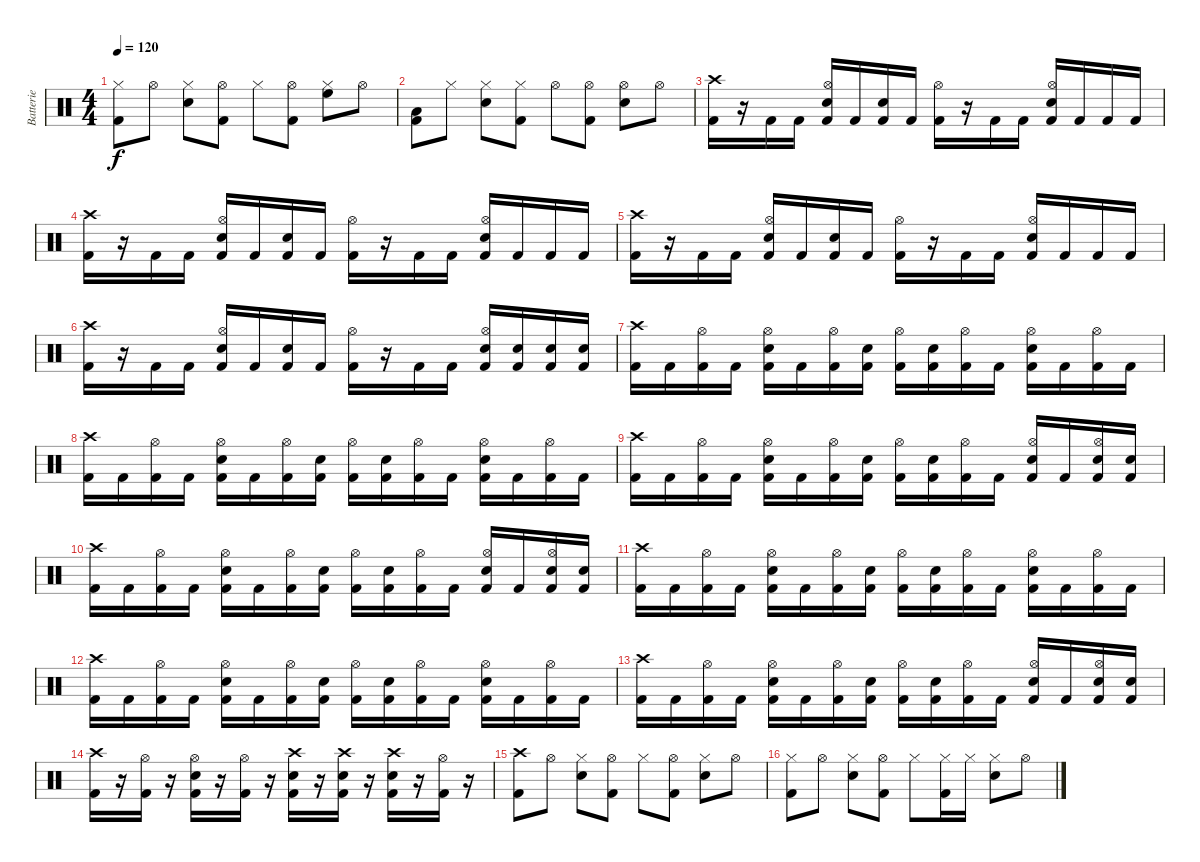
\track ("Batterie" "Batterie") {instrument percussion}
\staff {score}
\articulation defaults
\ts (4 4)
\tempo 120
\clef neutral
\ks c
("Hi-Hat (closed)" "Kick (hit) 2").8{dy f} "Hi-Hat (open)".8 ("Hi-Hat (closed)" "Snare (hit) 2").8 ("Hi-Hat (open)" "Kick (hit) 2").8 "Hi-Hat (closed)".8 ("Hi-Hat (open)" "Kick (hit) 2").8 ("Hi-Hat (closed)" "High Floor Tom (hit)").8 "Hi-Hat (open)".8 |
("Low Tom (hit)" "Kick (hit) 2").8 "Hi-Hat (closed)".8 ("Hi-Hat (closed)" "Snare (hit) 2").8 ("Hi-Hat (closed)" "Kick (hit) 2").8 "Hi-Hat (open)".8 ("Hi-Hat (open)" "Kick (hit) 2").8 ("Hi-Hat (open)" "Snare (hit) 2").8 "Hi-Hat (open)".8 |
("Crash high (hit)" "Kick (hit) 2").16 r.16 "Kick (hit) 2".16 "Kick (hit) 2".16 ("Hi-Hat (open)" "Snare (hit) 2" "Kick (hit) 2").16 "Kick (hit) 2".16 ("Snare (hit) 2" "Kick (hit) 2").16 "Kick (hit) 2".16 ("Hi-Hat (open)" "Kick (hit) 2").16 r.16 "Kick (hit) 2".16 "Kick (hit) 2".16 ("Hi-Hat (open)" "Snare (hit) 2" "Kick (hit) 2").16 "Kick (hit) 2".16 "Kick (hit) 2".16 "Kick (hit) 2".16 |
("Crash high (hit)" "Kick (hit) 2").16 r.16 "Kick (hit) 2".16 "Kick (hit) 2".16 ("Hi-Hat (open)" "Snare (hit) 2" "Kick (hit) 2").16 "Kick (hit) 2".16 ("Snare (hit) 2" "Kick (hit) 2").16 "Kick (hit) 2".16 ("Hi-Hat (open)" "Kick (hit) 2").16 r.16 "Kick (hit) 2".16 "Kick (hit) 2".16 ("Hi-Hat (open)" "Snare (hit) 2" "Kick (hit) 2").16 "Kick (hit) 2".16 "Kick (hit) 2".16 "Kick (hit) 2".16 |
("Crash high (hit)" "Kick (hit) 2").16 r.16 "Kick (hit) 2".16 "Kick (hit) 2".16 ("Hi-Hat (open)" "Snare (hit) 2" "Kick (hit) 2").16 "Kick (hit) 2".16 ("Snare (hit) 2" "Kick (hit) 2").16 "Kick (hit) 2".16 ("Hi-Hat (open)" "Kick (hit) 2").16 r.16 "Kick (hit) 2".16 "Kick (hit) 2".16 ("Hi-Hat (open)" "Snare (hit) 2" "Kick (hit) 2").16 "Kick (hit) 2".16 "Kick (hit) 2".16 "Kick (hit) 2".16 |
("Crash high (hit)" "Kick (hit) 2").16 r.16 "Kick (hit) 2".16 "Kick (hit) 2".16 ("Hi-Hat (open)" "Snare (hit) 2" "Kick (hit) 2").16 "Kick (hit) 2".16 ("Snare (hit) 2" "Kick (hit) 2").16 "Kick (hit) 2".16 ("Hi-Hat (open)" "Kick (hit) 2").16 r.16 "Kick (hit) 2".16 "Kick (hit) 2".16 ("Hi-Hat (open)" "Snare (hit) 2" "Kick (hit) 2").16 ("Snare (hit) 2" "Kick (hit) 2").16 ("Snare (hit) 2" "Kick (hit) 2").16 ("Snare (hit) 2" "Kick (hit) 2").16 |
("Crash high (hit)" "Kick (hit) 2").16 "Kick (hit) 2".16 ("Hi-Hat (open)" "Kick (hit) 2").16 "Kick (hit) 2".16 ("Hi-Hat (open)" "Snare (hit) 2" "Kick (hit) 2").16 "Kick (hit) 2".16 ("Hi-Hat (open)" "Kick (hit) 2").16 ("Snare (hit) 2" "Kick (hit) 2").16 ("Hi-Hat (open)" "Kick (hit) 2").16 ("Snare (hit) 2" "Kick (hit) 2").16 ("Hi-Hat (open)" "Kick (hit) 2").16 "Kick (hit) 2".16 ("Hi-Hat (open)" "Snare (hit) 2" "Kick (hit) 2").16 "Kick (hit) 2".16 ("Hi-Hat (open)" "Kick (hit) 2").16 "Kick (hit) 2".16 |
("Crash high (hit)" "Kick (hit) 2").16 "Kick (hit) 2".16 ("Hi-Hat (open)" "Kick (hit) 2").16 "Kick (hit) 2".16 ("Hi-Hat (open)" "Snare (hit) 2" "Kick (hit) 2").16 "Kick (hit) 2".16 ("Hi-Hat (open)" "Kick (hit) 2").16 ("Snare (hit) 2" "Kick (hit) 2").16 ("Hi-Hat (open)" "Kick (hit) 2").16 ("Snare (hit) 2" "Kick (hit) 2").16 ("Hi-Hat (open)" "Kick (hit) 2").16 "Kick (hit) 2".16 ("Hi-Hat (open)" "Snare (hit) 2" "Kick (hit) 2").16 "Kick (hit) 2".16 ("Hi-Hat (open)" "Kick (hit) 2").16 "Kick (hit) 2".16 |
("Crash high (hit)" "Kick (hit) 2").16 "Kick (hit) 2".16 ("Hi-Hat (open)" "Kick (hit) 2").16 "Kick (hit) 2".16 ("Hi-Hat (open)" "Snare (hit) 2" "Kick (hit) 2").16 "Kick (hit) 2".16 ("Hi-Hat (open)" "Kick (hit) 2").16 ("Snare (hit) 2" "Kick (hit) 2").16 ("Hi-Hat (open)" "Kick (hit) 2").16 ("Snare (hit) 2" "Kick (hit) 2").16 ("Hi-Hat (open)" "Kick (hit) 2").16 "Kick (hit) 2".16 ("Hi-Hat (open)" "Snare (hit) 2" "Kick (hit) 2").16 "Kick (hit) 2".16 ("Hi-Hat (open)" "Snare (hit) 2" "Kick (hit) 2").16 ("Snare (hit) 2" "Kick (hit) 2").16 |
("Crash high (hit)" "Kick (hit) 2").16 "Kick (hit) 2".16 ("Hi-Hat (open)" "Kick (hit) 2").16 "Kick (hit) 2".16 ("Hi-Hat (open)" "Snare (hit) 2" "Kick (hit) 2").16 "Kick (hit) 2".16 ("Hi-Hat (open)" "Kick (hit) 2").16 ("Snare (hit) 2" "Kick (hit) 2").16 ("Hi-Hat (open)" "Kick (hit) 2").16 ("Snare (hit) 2" "Kick (hit) 2").16 ("Hi-Hat (open)" "Kick (hit) 2").16 "Kick (hit) 2".16 ("Hi-Hat (open)" "Snare (hit) 2" "Kick (hit) 2").16 "Kick (hit) 2".16 ("Hi-Hat (open)" "Snare (hit) 2" "Kick (hit) 2").16 ("Snare (hit) 2" "Kick (hit) 2").16 |
("Crash high (hit)" "Kick (hit) 2").16 "Kick (hit) 2".16 ("Hi-Hat (open)" "Kick (hit) 2").16 "Kick (hit) 2".16 ("Hi-Hat (open)" "Snare (hit) 2" "Kick (hit) 2").16 "Kick (hit) 2".16 ("Hi-Hat (open)" "Kick (hit) 2").16 ("Snare (hit) 2" "Kick (hit) 2").16 ("Hi-Hat (open)" "Kick (hit) 2").16 ("Snare (hit) 2" "Kick (hit) 2").16 ("Hi-Hat (open)" "Kick (hit) 2").16 "Kick (hit) 2".16 ("Hi-Hat (open)" "Snare (hit) 2" "Kick (hit) 2").16 "Kick (hit) 2".16 ("Hi-Hat (open)" "Kick (hit) 2").16 "Kick (hit) 2".16 |
("Crash high (hit)" "Kick (hit) 2").16 "Kick (hit) 2".16 ("Hi-Hat (open)" "Kick (hit) 2").16 "Kick (hit) 2".16 ("Hi-Hat (open)" "Snare (hit) 2" "Kick (hit) 2").16 "Kick (hit) 2".16 ("Hi-Hat (open)" "Kick (hit) 2").16 ("Snare (hit) 2" "Kick (hit) 2").16 ("Hi-Hat (open)" "Kick (hit) 2").16 ("Snare (hit) 2" "Kick (hit) 2").16 ("Hi-Hat (open)" "Kick (hit) 2").16 "Kick (hit) 2".16 ("Hi-Hat (open)" "Snare (hit) 2" "Kick (hit) 2").16 "Kick (hit) 2".16 ("Hi-Hat (open)" "Kick (hit) 2").16 "Kick (hit) 2".16 |
("Crash high (hit)" "Kick (hit) 2").16 "Kick (hit) 2".16 ("Hi-Hat (open)" "Kick (hit) 2").16 "Kick (hit) 2".16 ("Hi-Hat (open)" "Snare (hit) 2" "Kick (hit) 2").16 "Kick (hit) 2".16 ("Hi-Hat (open)" "Kick (hit) 2").16 ("Snare (hit) 2" "Kick (hit) 2").16 ("Hi-Hat (open)" "Kick (hit) 2").16 ("Snare (hit) 2" "Kick (hit) 2").16 ("Hi-Hat (open)" "Kick (hit) 2").16 "Kick (hit) 2".16 ("Hi-Hat (open)" "Snare (hit) 2" "Kick (hit) 2").16 "Kick (hit) 2".16 ("Hi-Hat (open)" "Snare (hit) 2" "Kick (hit) 2").16 ("Snare (hit) 2" "Kick (hit) 2").16 |
("Crash high (hit)" "Kick (hit) 2").16 r.16 ("Hi-Hat (open)" "Kick (hit) 2").16 r.16 ("Hi-Hat (open)" "Snare (hit) 2" "Kick (hit) 2").16 r.16 ("Hi-Hat (open)" "Kick (hit) 2").16 r.16 ("Crash high (hit)" "Snare (hit) 2" "Kick (hit) 2").16 r.16 ("Crash high (hit)" "Snare (hit) 2" "Kick (hit) 2").16 r.16 ("Crash high (hit)" "Snare (hit) 2" "Kick (hit) 2").16 r.16 ("Hi-Hat (open)" "Kick (hit) 2").16 r.16 |
("Crash high (hit)" "Kick (hit) 2").8 "Hi-Hat (open)".8 ("Hi-Hat (closed)" "Snare (hit) 2").8 ("Hi-Hat (open)" "Kick (hit) 2").8 "Hi-Hat (closed)".8 ("Hi-Hat (open)" "Kick (hit) 2").8 ("Hi-Hat (closed)" "Snare (hit) 2").8 "Hi-Hat (open)".8 |
("Hi-Hat (closed)" "Kick (hit) 2").8 "Hi-Hat (open)".8 ("Hi-Hat (closed)" "Snare (hit) 2").8 ("Hi-Hat (open)" "Kick (hit) 2").8 "Hi-Hat (closed)".8 ("Hi-Hat (closed)" "Kick (hit) 2").16 "Hi-Hat (closed)".16 ("Hi-Hat (closed)" "Snare (hit) 2").8 "Hi-Hat (open)".8
